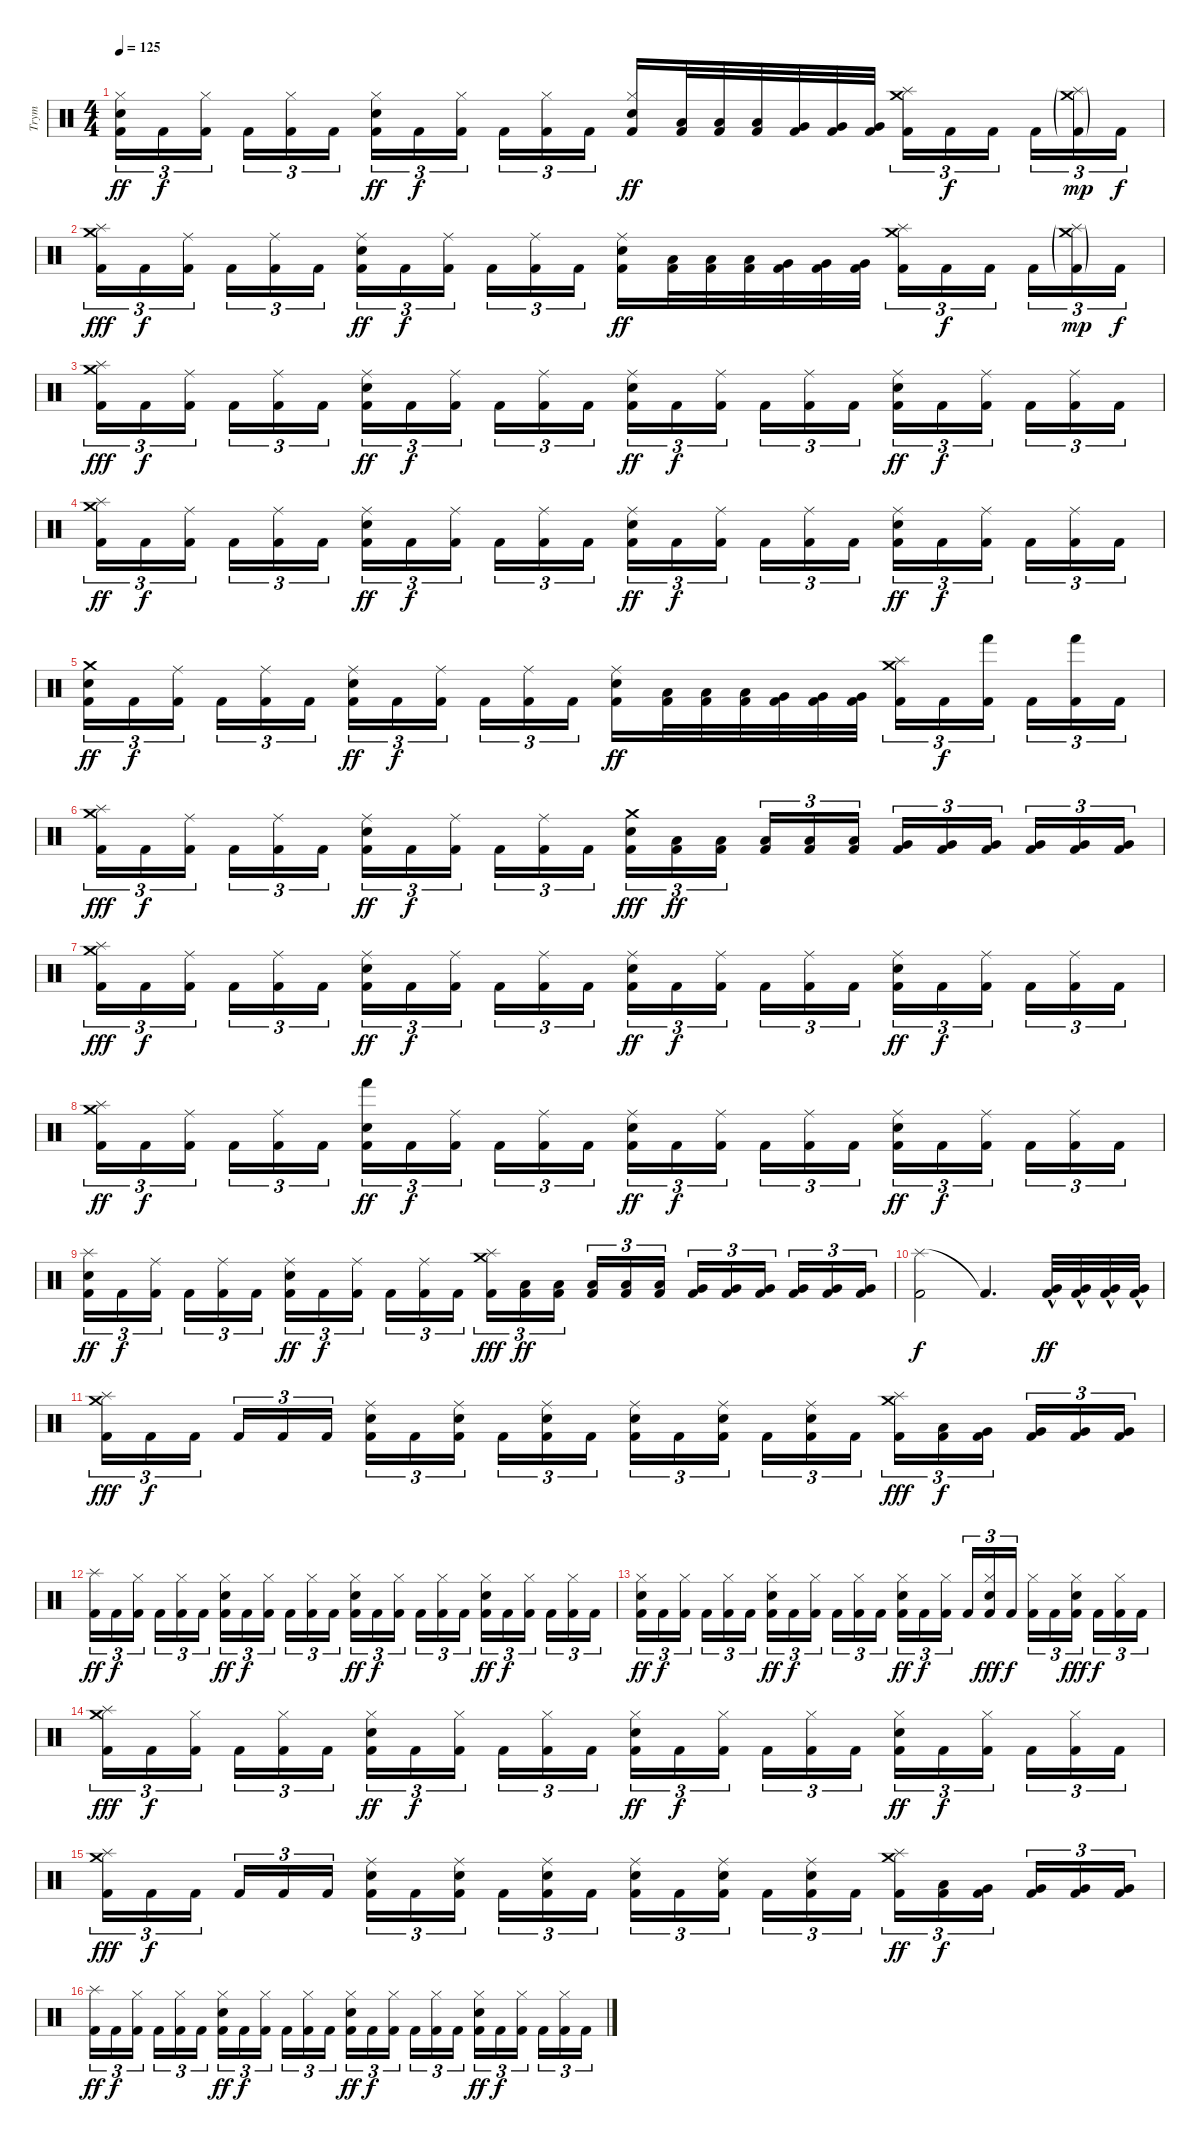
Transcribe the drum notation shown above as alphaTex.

\track ("Trym" "Trym") {instrument percussion}
\staff {score}
\articulation defaults
\ts (4 4)
\tempo 125
\clef neutral
\ks c
("Snare (hit) 2" "Hi-Hat (closed)" "Kick (hit) 2").16{tu (3 2) dy ff} "Kick (hit) 2".16{tu (3 2) dy f} ("Hi-Hat (closed)" "Kick (hit) 2").16{tu (3 2) beam splitsecondary} "Kick (hit) 2".16{tu (3 2)} ("Hi-Hat (closed)" "Kick (hit) 2").16{tu (3 2)} "Kick (hit) 2".16{tu (3 2)} ("Snare (hit) 2" "Hi-Hat (closed)" "Kick (hit) 2").16{tu (3 2) dy ff} "Kick (hit) 2".16{tu (3 2) dy f} ("Hi-Hat (closed)" "Kick (hit) 2").16{tu (3 2) beam splitsecondary} "Kick (hit) 2".16{tu (3 2)} ("Hi-Hat (closed)" "Kick (hit) 2").16{tu (3 2)} "Kick (hit) 2".16{tu (3 2)} ("Snare (hit) 2" "Hi-Hat (closed)" "Kick (hit) 2").16{dy ff} ("Low Tom (hit)" "Kick (hit) 2").32 ("Low Tom (hit)" "Kick (hit) 2").32 ("Low Tom (hit)" "Kick (hit) 2").32 ("Very Low Tom (hit)" "Kick (hit) 2").32 ("Very Low Tom (hit)" "Kick (hit) 2").32 ("Very Low Tom (hit)" "Kick (hit) 2").32 ("Crash medium (hit)" "Splash (hit)" "Kick (hit) 2").16{tu (3 2)} "Kick (hit) 2".16{tu (3 2) dy f} "Kick (hit) 2".16{tu (3 2) beam splitsecondary} "Kick (hit) 2".16{tu (3 2)} ("Crash medium (hit)"{g} "Splash (hit)"{g} "Kick (hit) 2"{g}).16{tu (3 2) dy mp} "Kick (hit) 2".16{tu (3 2) dy f} |
("Crash medium (hit)" "Splash (hit)" "Kick (hit) 2").16{tu (3 2) dy fff} "Kick (hit) 2".16{tu (3 2) dy f} ("Ride (middle)" "Kick (hit) 2").16{tu (3 2) beam splitsecondary} "Kick (hit) 2".16{tu (3 2)} ("Ride (middle)" "Kick (hit) 2").16{tu (3 2)} "Kick (hit) 2".16{tu (3 2)} ("Snare (hit) 2" "Ride (middle)" "Kick (hit) 2").16{tu (3 2) dy ff} "Kick (hit) 2".16{tu (3 2) dy f} ("Ride (middle)" "Kick (hit) 2").16{tu (3 2) beam splitsecondary} "Kick (hit) 2".16{tu (3 2)} ("Ride (middle)" "Kick (hit) 2").16{tu (3 2)} "Kick (hit) 2".16{tu (3 2)} ("Snare (hit) 2" "Ride (middle)" "Kick (hit) 2").16{dy ff} ("Low Tom (hit)" "Kick (hit) 2").32 ("Low Tom (hit)" "Kick (hit) 2").32 ("Low Tom (hit)" "Kick (hit) 2").32 ("Very Low Tom (hit)" "Kick (hit) 2").32 ("Very Low Tom (hit)" "Kick (hit) 2").32 ("Very Low Tom (hit)" "Kick (hit) 2").32 ("Crash medium (hit)" "Splash (hit)" "Kick (hit) 2").16{tu (3 2)} "Kick (hit) 2".16{tu (3 2) dy f} "Kick (hit) 2".16{tu (3 2) beam splitsecondary} "Kick (hit) 2".16{tu (3 2)} ("Crash medium (hit)"{g} "Splash (hit)"{g} "Kick (hit) 2"{g}).16{tu (3 2) dy mp} "Kick (hit) 2".16{tu (3 2) dy f} |
("Crash medium (hit)" "Splash (hit)" "Kick (hit) 2").16{tu (3 2) dy fff} "Kick (hit) 2".16{tu (3 2) dy f} ("Ride (middle)" "Kick (hit) 2").16{tu (3 2) beam splitsecondary} "Kick (hit) 2".16{tu (3 2)} ("Ride (middle)" "Kick (hit) 2").16{tu (3 2)} "Kick (hit) 2".16{tu (3 2)} ("Snare (hit) 2" "Ride (middle)" "Kick (hit) 2").16{tu (3 2) dy ff} "Kick (hit) 2".16{tu (3 2) dy f} ("Ride (middle)" "Kick (hit) 2").16{tu (3 2) beam splitsecondary} "Kick (hit) 2".16{tu (3 2)} ("Ride (middle)" "Kick (hit) 2").16{tu (3 2)} "Kick (hit) 2".16{tu (3 2)} ("Snare (hit) 2" "Ride (middle)" "Kick (hit) 2").16{tu (3 2) dy ff} "Kick (hit) 2".16{tu (3 2) dy f} ("Ride (middle)" "Kick (hit) 2").16{tu (3 2) beam splitsecondary} "Kick (hit) 2".16{tu (3 2)} ("Ride (middle)" "Kick (hit) 2").16{tu (3 2)} "Kick (hit) 2".16{tu (3 2)} ("Snare (hit) 2" "Ride (middle)" "Kick (hit) 2").16{tu (3 2) dy ff} "Kick (hit) 2".16{tu (3 2) dy f} ("Ride (middle)" "Kick (hit) 2").16{tu (3 2) beam splitsecondary} "Kick (hit) 2".16{tu (3 2)} ("Ride (middle)" "Kick (hit) 2").16{tu (3 2)} "Kick (hit) 2".16{tu (3 2)} |
("Crash medium (hit)" "Splash (hit)" "Kick (hit) 2").16{tu (3 2) dy ff} "Kick (hit) 2".16{tu (3 2) dy f} ("Ride (middle)" "Kick (hit) 2").16{tu (3 2) beam splitsecondary} "Kick (hit) 2".16{tu (3 2)} ("Ride (middle)" "Kick (hit) 2").16{tu (3 2)} "Kick (hit) 2".16{tu (3 2)} ("Snare (hit) 2" "Ride (middle)" "Kick (hit) 2").16{tu (3 2) dy ff} "Kick (hit) 2".16{tu (3 2) dy f} ("Ride (middle)" "Kick (hit) 2").16{tu (3 2) beam splitsecondary} "Kick (hit) 2".16{tu (3 2)} ("Ride (middle)" "Kick (hit) 2").16{tu (3 2)} "Kick (hit) 2".16{tu (3 2)} ("Snare (hit) 2" "Ride (middle)" "Kick (hit) 2").16{tu (3 2) dy ff} "Kick (hit) 2".16{tu (3 2) dy f} ("Ride (middle)" "Kick (hit) 2").16{tu (3 2) beam splitsecondary} "Kick (hit) 2".16{tu (3 2)} ("Ride (middle)" "Kick (hit) 2").16{tu (3 2)} "Kick (hit) 2".16{tu (3 2)} ("Snare (hit) 2" "Ride (middle)" "Kick (hit) 2").16{tu (3 2) dy ff} "Kick (hit) 2".16{tu (3 2) dy f} ("Ride (middle)" "Kick (hit) 2").16{tu (3 2) beam splitsecondary} "Kick (hit) 2".16{tu (3 2)} ("Ride (middle)" "Kick (hit) 2").16{tu (3 2)} "Kick (hit) 2".16{tu (3 2)} |
("Snare (hit) 2" "Crash medium (hit)" "Kick (hit) 2").16{tu (3 2) dy ff} "Kick (hit) 2".16{tu (3 2) dy f} ("Ride (middle)" "Kick (hit) 2").16{tu (3 2) beam splitsecondary} "Kick (hit) 2".16{tu (3 2)} ("Ride (middle)" "Kick (hit) 2").16{tu (3 2)} "Kick (hit) 2".16{tu (3 2)} ("Snare (hit) 2" "Ride (middle)" "Kick (hit) 2").16{tu (3 2) dy ff} "Kick (hit) 2".16{tu (3 2) dy f} ("Ride (middle)" "Kick (hit) 2").16{tu (3 2) beam splitsecondary} "Kick (hit) 2".16{tu (3 2)} ("Ride (middle)" "Kick (hit) 2").16{tu (3 2)} "Kick (hit) 2".16{tu (3 2)} ("Snare (hit) 2" "Ride (middle)" "Kick (hit) 2").16{dy ff} ("Low Tom (hit)" "Kick (hit) 2").32 ("Low Tom (hit)" "Kick (hit) 2").32 ("Low Tom (hit)" "Kick (hit) 2").32 ("Very Low Tom (hit)" "Kick (hit) 2").32 ("Very Low Tom (hit)" "Kick (hit) 2").32 ("Very Low Tom (hit)" "Kick (hit) 2").32 ("Crash medium (hit)" "Splash (hit)" "Kick (hit) 2").16{tu (3 2)} "Kick (hit) 2".16{tu (3 2) dy f} ("Hand (hit)" "Kick (hit) 2").16{tu (3 2) beam splitsecondary} "Kick (hit) 2".16{tu (3 2)} ("Hand (hit)" "Kick (hit) 2").16{tu (3 2)} "Kick (hit) 2".16{tu (3 2)} |
("Crash medium (hit)" "Splash (hit)" "Kick (hit) 2").16{tu (3 2) dy fff} "Kick (hit) 2".16{tu (3 2) dy f} ("Ride (middle)" "Kick (hit) 2").16{tu (3 2) beam splitsecondary} "Kick (hit) 2".16{tu (3 2)} ("Ride (middle)" "Kick (hit) 2").16{tu (3 2)} "Kick (hit) 2".16{tu (3 2)} ("Snare (hit) 2" "Ride (middle)" "Kick (hit) 2").16{tu (3 2) dy ff} "Kick (hit) 2".16{tu (3 2) dy f} ("Ride (middle)" "Kick (hit) 2").16{tu (3 2) beam splitsecondary} "Kick (hit) 2".16{tu (3 2)} ("Ride (middle)" "Kick (hit) 2").16{tu (3 2)} "Kick (hit) 2".16{tu (3 2)} ("Snare (hit) 2" "Crash medium (hit)" "Kick (hit) 2").16{tu (3 2) dy fff} ("Low Tom (hit)" "Kick (hit) 2").16{tu (3 2) dy ff} ("Low Tom (hit)" "Kick (hit) 2").16{tu (3 2) beam splitsecondary} ("Low Tom (hit)" "Kick (hit) 2").16{tu (3 2)} ("Low Tom (hit)" "Kick (hit) 2").16{tu (3 2)} ("Low Tom (hit)" "Kick (hit) 2").16{tu (3 2)} ("Very Low Tom (hit)" "Kick (hit) 2").16{tu (3 2)} ("Very Low Tom (hit)" "Kick (hit) 2").16{tu (3 2)} ("Very Low Tom (hit)" "Kick (hit) 2").16{tu (3 2) beam splitsecondary} ("Very Low Tom (hit)" "Kick (hit) 2").16{tu (3 2)} ("Very Low Tom (hit)" "Kick (hit) 2").16{tu (3 2)} ("Very Low Tom (hit)" "Kick (hit) 2").16{tu (3 2)} |
("Crash medium (hit)" "Splash (hit)" "Kick (hit) 2").16{tu (3 2) dy fff} "Kick (hit) 2".16{tu (3 2) dy f} ("Ride (middle)" "Kick (hit) 2").16{tu (3 2) beam splitsecondary} "Kick (hit) 2".16{tu (3 2)} ("Ride (middle)" "Kick (hit) 2").16{tu (3 2)} "Kick (hit) 2".16{tu (3 2)} ("Snare (hit) 2" "Ride (middle)" "Kick (hit) 2").16{tu (3 2) dy ff} "Kick (hit) 2".16{tu (3 2) dy f} ("Ride (middle)" "Kick (hit) 2").16{tu (3 2) beam splitsecondary} "Kick (hit) 2".16{tu (3 2)} ("Ride (middle)" "Kick (hit) 2").16{tu (3 2)} "Kick (hit) 2".16{tu (3 2)} ("Snare (hit) 2" "Ride (middle)" "Kick (hit) 2").16{tu (3 2) dy ff} "Kick (hit) 2".16{tu (3 2) dy f} ("Ride (middle)" "Kick (hit) 2").16{tu (3 2) beam splitsecondary} "Kick (hit) 2".16{tu (3 2)} ("Ride (middle)" "Kick (hit) 2").16{tu (3 2)} "Kick (hit) 2".16{tu (3 2)} ("Snare (hit) 2" "Ride (middle)" "Kick (hit) 2").16{tu (3 2) dy ff} "Kick (hit) 2".16{tu (3 2) dy f} ("Ride (middle)" "Kick (hit) 2").16{tu (3 2) beam splitsecondary} "Kick (hit) 2".16{tu (3 2)} ("Ride (middle)" "Kick (hit) 2").16{tu (3 2)} "Kick (hit) 2".16{tu (3 2)} |
("Crash medium (hit)" "Splash (hit)" "Kick (hit) 2").16{tu (3 2) dy ff} "Kick (hit) 2".16{tu (3 2) dy f} ("Ride (middle)" "Kick (hit) 2").16{tu (3 2) beam splitsecondary} "Kick (hit) 2".16{tu (3 2)} ("Ride (middle)" "Kick (hit) 2").16{tu (3 2)} "Kick (hit) 2".16{tu (3 2)} ("Snare (hit) 2" "Hand (hit)" "Kick (hit) 2").16{tu (3 2) dy ff} "Kick (hit) 2".16{tu (3 2) dy f} ("Ride (middle)" "Kick (hit) 2").16{tu (3 2) beam splitsecondary} "Kick (hit) 2".16{tu (3 2)} ("Ride (middle)" "Kick (hit) 2").16{tu (3 2)} "Kick (hit) 2".16{tu (3 2)} ("Snare (hit) 2" "Ride (middle)" "Kick (hit) 2").16{tu (3 2) dy ff} "Kick (hit) 2".16{tu (3 2) dy f} ("Ride (middle)" "Kick (hit) 2").16{tu (3 2) beam splitsecondary} "Kick (hit) 2".16{tu (3 2)} ("Ride (middle)" "Kick (hit) 2").16{tu (3 2)} "Kick (hit) 2".16{tu (3 2)} ("Snare (hit) 2" "Ride (middle)" "Kick (hit) 2").16{tu (3 2) dy ff} "Kick (hit) 2".16{tu (3 2) dy f} ("Ride (middle)" "Kick (hit) 2").16{tu (3 2) beam splitsecondary} "Kick (hit) 2".16{tu (3 2)} ("Ride (middle)" "Kick (hit) 2").16{tu (3 2)} "Kick (hit) 2".16{tu (3 2)} |
("Snare (hit) 2" "Splash (hit)" "Kick (hit) 2").16{tu (3 2) dy ff} "Kick (hit) 2".16{tu (3 2) dy f} ("Ride (middle)" "Kick (hit) 2").16{tu (3 2) beam splitsecondary} "Kick (hit) 2".16{tu (3 2)} ("Ride (middle)" "Kick (hit) 2").16{tu (3 2)} "Kick (hit) 2".16{tu (3 2)} ("Snare (hit) 2" "Ride (middle)" "Kick (hit) 2").16{tu (3 2) dy ff} "Kick (hit) 2".16{tu (3 2) dy f} ("Ride (middle)" "Kick (hit) 2").16{tu (3 2) beam splitsecondary} "Kick (hit) 2".16{tu (3 2)} ("Ride (middle)" "Kick (hit) 2").16{tu (3 2)} "Kick (hit) 2".16{tu (3 2)} ("Crash medium (hit)" "Splash (hit)" "Kick (hit) 2").16{tu (3 2) dy fff} ("Low Tom (hit)" "Kick (hit) 2").16{tu (3 2) dy ff} ("Low Tom (hit)" "Kick (hit) 2").16{tu (3 2) beam splitsecondary} ("Low Tom (hit)" "Kick (hit) 2").16{tu (3 2)} ("Low Tom (hit)" "Kick (hit) 2").16{tu (3 2)} ("Low Tom (hit)" "Kick (hit) 2").16{tu (3 2)} ("Very Low Tom (hit)" "Kick (hit) 2").16{tu (3 2)} ("Very Low Tom (hit)" "Kick (hit) 2").16{tu (3 2)} ("Very Low Tom (hit)" "Kick (hit) 2").16{tu (3 2) beam splitsecondary} ("Very Low Tom (hit)" "Kick (hit) 2").16{tu (3 2)} ("Very Low Tom (hit)" "Kick (hit) 2").16{tu (3 2)} ("Very Low Tom (hit)" "Kick (hit) 2").16{tu (3 2)} |
("Splash (hit)" "Kick (hit) 2").2{dy f} "Kick (hit) 2"{t}.4{d} ("Very Low Tom (hit)" "Kick (hit) 2"{hac}).32{dy ff} ("Very Low Tom (hit)" "Kick (hit) 2"{hac}).32 ("Very Low Tom (hit)" "Kick (hit) 2"{hac}).32 ("Very Low Tom (hit)" "Kick (hit) 2"{hac}).32 |
("Crash medium (hit)" "Splash (hit)" "Kick (hit) 2").16{tu (3 2) dy fff} "Kick (hit) 2".16{tu (3 2) dy f} "Kick (hit) 2".16{tu (3 2) beam splitsecondary} "Kick (hit) 2".16{tu (3 2)} "Kick (hit) 2".16{tu (3 2)} "Kick (hit) 2".16{tu (3 2)} ("Snare (hit) 2" "Ride (middle)" "Kick (hit) 2").16{tu (3 2)} "Kick (hit) 2".16{tu (3 2)} ("Snare (hit) 2" "Ride (middle)" "Kick (hit) 2").16{tu (3 2) beam splitsecondary} "Kick (hit) 2".16{tu (3 2)} ("Snare (hit) 2" "Ride (middle)" "Kick (hit) 2").16{tu (3 2)} "Kick (hit) 2".16{tu (3 2)} ("Snare (hit) 2" "Ride (middle)" "Kick (hit) 2").16{tu (3 2)} "Kick (hit) 2".16{tu (3 2)} ("Snare (hit) 2" "Ride (middle)" "Kick (hit) 2").16{tu (3 2) beam splitsecondary} "Kick (hit) 2".16{tu (3 2)} ("Snare (hit) 2" "Ride (middle)" "Kick (hit) 2").16{tu (3 2)} "Kick (hit) 2".16{tu (3 2)} ("Crash medium (hit)" "Splash (hit)" "Kick (hit) 2").16{tu (3 2) dy fff} ("Low Tom (hit)" "Kick (hit) 2").16{tu (3 2) dy f} ("Very Low Tom (hit)" "Kick (hit) 2").16{tu (3 2) beam splitsecondary} ("Very Low Tom (hit)" "Kick (hit) 2").16{tu (3 2)} ("Very Low Tom (hit)" "Kick (hit) 2").16{tu (3 2)} ("Very Low Tom (hit)" "Kick (hit) 2").16{tu (3 2)} |
("Splash (hit)" "Kick (hit) 2").16{tu (3 2) dy ff} "Kick (hit) 2".16{tu (3 2) dy f} ("Hi-Hat (closed)" "Kick (hit) 2").16{tu (3 2) beam splitsecondary} "Kick (hit) 2".16{tu (3 2)} ("Hi-Hat (closed)" "Kick (hit) 2").16{tu (3 2)} "Kick (hit) 2".16{tu (3 2)} ("Snare (hit) 2" "Hi-Hat (closed)" "Kick (hit) 2").16{tu (3 2) dy ff} "Kick (hit) 2".16{tu (3 2) dy f} ("Hi-Hat (closed)" "Kick (hit) 2").16{tu (3 2) beam splitsecondary} "Kick (hit) 2".16{tu (3 2)} ("Hi-Hat (closed)" "Kick (hit) 2").16{tu (3 2)} "Kick (hit) 2".16{tu (3 2)} ("Snare (hit) 2" "Hi-Hat (closed)" "Kick (hit) 2").16{tu (3 2) dy ff} "Kick (hit) 2".16{tu (3 2) dy f} ("Hi-Hat (closed)" "Kick (hit) 2").16{tu (3 2) beam splitsecondary} "Kick (hit) 2".16{tu (3 2)} ("Hi-Hat (closed)" "Kick (hit) 2").16{tu (3 2)} "Kick (hit) 2".16{tu (3 2)} ("Snare (hit) 2" "Hi-Hat (closed)" "Kick (hit) 2").16{tu (3 2) dy ff} "Kick (hit) 2".16{tu (3 2) dy f} ("Hi-Hat (closed)" "Kick (hit) 2").16{tu (3 2) beam splitsecondary} "Kick (hit) 2".16{tu (3 2)} ("Hi-Hat (closed)" "Kick (hit) 2").16{tu (3 2)} "Kick (hit) 2".16{tu (3 2)} |
("Snare (hit) 2" "Hi-Hat (closed)" "Kick (hit) 2").16{tu (3 2) dy ff} "Kick (hit) 2".16{tu (3 2) dy f} ("Hi-Hat (closed)" "Kick (hit) 2").16{tu (3 2) beam splitsecondary} "Kick (hit) 2".16{tu (3 2)} ("Hi-Hat (closed)" "Kick (hit) 2").16{tu (3 2)} "Kick (hit) 2".16{tu (3 2)} ("Snare (hit) 2" "Hi-Hat (closed)" "Kick (hit) 2").16{tu (3 2) dy ff} "Kick (hit) 2".16{tu (3 2) dy f} ("Hi-Hat (closed)" "Kick (hit) 2").16{tu (3 2) beam splitsecondary} "Kick (hit) 2".16{tu (3 2)} ("Hi-Hat (closed)" "Kick (hit) 2").16{tu (3 2)} "Kick (hit) 2".16{tu (3 2)} ("Snare (hit) 2" "Hi-Hat (closed)" "Kick (hit) 2").16{tu (3 2) dy ff} "Kick (hit) 2".16{tu (3 2) dy f} ("Hi-Hat (closed)" "Kick (hit) 2").16{tu (3 2) beam splitsecondary} "Kick (hit) 2".16{tu (3 2)} ("Snare (hit) 2" "Hi-Hat (closed)" "Kick (hit) 2").16{tu (3 2) dy fff} "Kick (hit) 2".16{tu (3 2) dy f} ("Hi-Hat (closed)" "Kick (hit) 2").16{tu (3 2)} "Kick (hit) 2".16{tu (3 2)} ("Snare (hit) 2" "Hi-Hat (closed)" "Kick (hit) 2").16{tu (3 2) dy fff beam splitsecondary} "Kick (hit) 2".16{tu (3 2) dy f} ("Hi-Hat (closed)" "Kick (hit) 2").16{tu (3 2)} "Kick (hit) 2".16{tu (3 2)} |
("Crash medium (hit)" "Splash (hit)" "Kick (hit) 2").16{tu (3 2) dy fff} "Kick (hit) 2".16{tu (3 2) dy f} ("Hi-Hat (closed)" "Kick (hit) 2").16{tu (3 2) beam splitsecondary} "Kick (hit) 2".16{tu (3 2)} ("Hi-Hat (closed)" "Kick (hit) 2").16{tu (3 2)} "Kick (hit) 2".16{tu (3 2)} ("Snare (hit) 2" "Hi-Hat (closed)" "Kick (hit) 2").16{tu (3 2) dy ff} "Kick (hit) 2".16{tu (3 2) dy f} ("Hi-Hat (closed)" "Kick (hit) 2").16{tu (3 2) beam splitsecondary} "Kick (hit) 2".16{tu (3 2)} ("Hi-Hat (closed)" "Kick (hit) 2").16{tu (3 2)} "Kick (hit) 2".16{tu (3 2)} ("Snare (hit) 2" "Hi-Hat (closed)" "Kick (hit) 2").16{tu (3 2) dy ff} "Kick (hit) 2".16{tu (3 2) dy f} ("Hi-Hat (closed)" "Kick (hit) 2").16{tu (3 2) beam splitsecondary} "Kick (hit) 2".16{tu (3 2)} ("Hi-Hat (closed)" "Kick (hit) 2").16{tu (3 2)} "Kick (hit) 2".16{tu (3 2)} ("Snare (hit) 2" "Hi-Hat (closed)" "Kick (hit) 2").16{tu (3 2) dy ff} "Kick (hit) 2".16{tu (3 2) dy f} ("Hi-Hat (closed)" "Kick (hit) 2").16{tu (3 2) beam splitsecondary} "Kick (hit) 2".16{tu (3 2)} ("Hi-Hat (closed)" "Kick (hit) 2").16{tu (3 2)} "Kick (hit) 2".16{tu (3 2)} |
("Crash medium (hit)" "Splash (hit)" "Kick (hit) 2").16{tu (3 2) dy fff} "Kick (hit) 2".16{tu (3 2) dy f} "Kick (hit) 2".16{tu (3 2) beam splitsecondary} "Kick (hit) 2".16{tu (3 2)} "Kick (hit) 2".16{tu (3 2)} "Kick (hit) 2".16{tu (3 2)} ("Snare (hit) 2" "Ride (middle)" "Kick (hit) 2").16{tu (3 2)} "Kick (hit) 2".16{tu (3 2)} ("Snare (hit) 2" "Ride (middle)" "Kick (hit) 2").16{tu (3 2) beam splitsecondary} "Kick (hit) 2".16{tu (3 2)} ("Snare (hit) 2" "Ride (middle)" "Kick (hit) 2").16{tu (3 2)} "Kick (hit) 2".16{tu (3 2)} ("Snare (hit) 2" "Ride (middle)" "Kick (hit) 2").16{tu (3 2)} "Kick (hit) 2".16{tu (3 2)} ("Snare (hit) 2" "Ride (middle)" "Kick (hit) 2").16{tu (3 2) beam splitsecondary} "Kick (hit) 2".16{tu (3 2)} ("Snare (hit) 2" "Ride (middle)" "Kick (hit) 2").16{tu (3 2)} "Kick (hit) 2".16{tu (3 2)} ("Crash medium (hit)" "Splash (hit)" "Kick (hit) 2").16{tu (3 2) dy ff} ("Low Tom (hit)" "Kick (hit) 2").16{tu (3 2) dy f} ("Very Low Tom (hit)" "Kick (hit) 2").16{tu (3 2) beam splitsecondary} ("Very Low Tom (hit)" "Kick (hit) 2").16{tu (3 2)} ("Very Low Tom (hit)" "Kick (hit) 2").16{tu (3 2)} ("Very Low Tom (hit)" "Kick (hit) 2").16{tu (3 2)} |
("Splash (hit)" "Kick (hit) 2").16{tu (3 2) dy ff} "Kick (hit) 2".16{tu (3 2) dy f} ("Hi-Hat (closed)" "Kick (hit) 2").16{tu (3 2) beam splitsecondary} "Kick (hit) 2".16{tu (3 2)} ("Hi-Hat (closed)" "Kick (hit) 2").16{tu (3 2)} "Kick (hit) 2".16{tu (3 2)} ("Snare (hit) 2" "Hi-Hat (closed)" "Kick (hit) 2").16{tu (3 2) dy ff} "Kick (hit) 2".16{tu (3 2) dy f} ("Hi-Hat (closed)" "Kick (hit) 2").16{tu (3 2) beam splitsecondary} "Kick (hit) 2".16{tu (3 2)} ("Hi-Hat (closed)" "Kick (hit) 2").16{tu (3 2)} "Kick (hit) 2".16{tu (3 2)} ("Snare (hit) 2" "Hi-Hat (closed)" "Kick (hit) 2").16{tu (3 2) dy ff} "Kick (hit) 2".16{tu (3 2) dy f} ("Hi-Hat (closed)" "Kick (hit) 2").16{tu (3 2) beam splitsecondary} "Kick (hit) 2".16{tu (3 2)} ("Hi-Hat (closed)" "Kick (hit) 2").16{tu (3 2)} "Kick (hit) 2".16{tu (3 2)} ("Snare (hit) 2" "Hi-Hat (closed)" "Kick (hit) 2").16{tu (3 2) dy ff} "Kick (hit) 2".16{tu (3 2) dy f} ("Hi-Hat (closed)" "Kick (hit) 2").16{tu (3 2) beam splitsecondary} "Kick (hit) 2".16{tu (3 2)} ("Hi-Hat (closed)" "Kick (hit) 2").16{tu (3 2)} "Kick (hit) 2".16{tu (3 2)}
